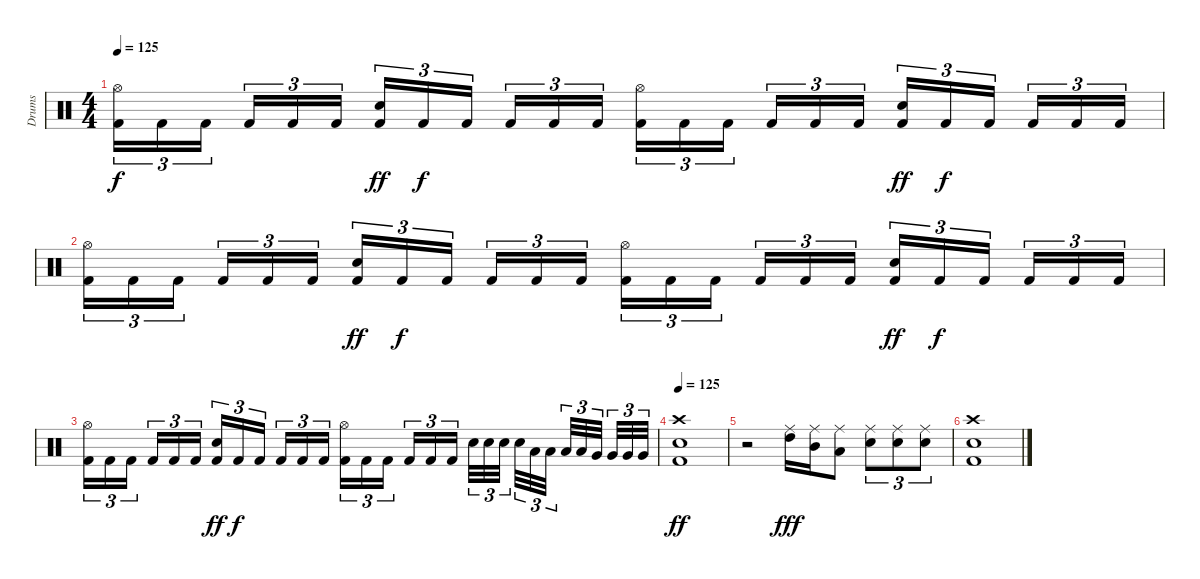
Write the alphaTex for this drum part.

\track ("Drums" "Drums") {instrument percussion}
\staff {score}
\articulation defaults
\ts (4 4)
\tempo 125
\clef neutral
\ks c
("Hi-Hat (open)" "Kick (hit) 2").16{tu (3 2) dy f} "Kick (hit) 2".16{tu (3 2)} "Kick (hit) 2".16{tu (3 2)} "Kick (hit) 2".16{tu (3 2)} "Kick (hit) 2".16{tu (3 2)} "Kick (hit) 2".16{tu (3 2)} ("Electric Snare (hit)" "Kick (hit) 2").16{tu (3 2) dy ff} "Kick (hit) 2".16{tu (3 2) dy f} "Kick (hit) 2".16{tu (3 2)} "Kick (hit) 2".16{tu (3 2)} "Kick (hit) 2".16{tu (3 2)} "Kick (hit) 2".16{tu (3 2)} ("Hi-Hat (open)" "Kick (hit) 2").16{tu (3 2)} "Kick (hit) 2".16{tu (3 2)} "Kick (hit) 2".16{tu (3 2)} "Kick (hit) 2".16{tu (3 2)} "Kick (hit) 2".16{tu (3 2)} "Kick (hit) 2".16{tu (3 2)} ("Electric Snare (hit)" "Kick (hit) 2").16{tu (3 2) dy ff} "Kick (hit) 2".16{tu (3 2) dy f} "Kick (hit) 2".16{tu (3 2)} "Kick (hit) 2".16{tu (3 2)} "Kick (hit) 2".16{tu (3 2)} "Kick (hit) 2".16{tu (3 2)} |
("Hi-Hat (open)" "Kick (hit) 2").16{tu (3 2)} "Kick (hit) 2".16{tu (3 2)} "Kick (hit) 2".16{tu (3 2)} "Kick (hit) 2".16{tu (3 2)} "Kick (hit) 2".16{tu (3 2)} "Kick (hit) 2".16{tu (3 2)} ("Electric Snare (hit)" "Kick (hit) 2").16{tu (3 2) dy ff} "Kick (hit) 2".16{tu (3 2) dy f} "Kick (hit) 2".16{tu (3 2)} "Kick (hit) 2".16{tu (3 2)} "Kick (hit) 2".16{tu (3 2)} "Kick (hit) 2".16{tu (3 2)} ("Hi-Hat (open)" "Kick (hit) 2").16{tu (3 2)} "Kick (hit) 2".16{tu (3 2)} "Kick (hit) 2".16{tu (3 2)} "Kick (hit) 2".16{tu (3 2)} "Kick (hit) 2".16{tu (3 2)} "Kick (hit) 2".16{tu (3 2)} ("Electric Snare (hit)" "Kick (hit) 2").16{tu (3 2) dy ff} "Kick (hit) 2".16{tu (3 2) dy f} "Kick (hit) 2".16{tu (3 2)} "Kick (hit) 2".16{tu (3 2)} "Kick (hit) 2".16{tu (3 2)} "Kick (hit) 2".16{tu (3 2)} |
("Hi-Hat (open)" "Kick (hit) 2").16{tu (3 2)} "Kick (hit) 2".16{tu (3 2)} "Kick (hit) 2".16{tu (3 2)} "Kick (hit) 2".16{tu (3 2)} "Kick (hit) 2".16{tu (3 2)} "Kick (hit) 2".16{tu (3 2)} ("Electric Snare (hit)" "Kick (hit) 2").16{tu (3 2) dy ff} "Kick (hit) 2".16{tu (3 2) dy f} "Kick (hit) 2".16{tu (3 2)} "Kick (hit) 2".16{tu (3 2)} "Kick (hit) 2".16{tu (3 2)} "Kick (hit) 2".16{tu (3 2)} ("Hi-Hat (open)" "Kick (hit) 2").16{tu (3 2)} "Kick (hit) 2".16{tu (3 2)} "Kick (hit) 2".16{tu (3 2)} "Kick (hit) 2".16{tu (3 2)} "Kick (hit) 2".16{tu (3 2)} "Kick (hit) 2".16{tu (3 2)} "Electric Snare (hit)".32{tu (3 2)} "Electric Snare (hit)".32{tu (3 2)} "Electric Snare (hit)".32{tu (3 2)} "Electric Snare (hit)".32{tu (3 2)} "Low Tom (hit)".32{tu (3 2)} "Low Tom (hit)".32{tu (3 2)} "Low Tom (hit)".32{tu (3 2)} "Low Tom (hit)".32{tu (3 2)} "Very Low Tom (hit)".32{tu (3 2)} "Very Low Tom (hit)".32{tu (3 2)} "Very Low Tom (hit)".32{tu (3 2)} "Very Low Tom (hit)".32{tu (3 2)} |
\tempo 125
("Crash high (hit)" "Electric Snare (hit)" "Kick (hit) 2").1{dy ff} |
r.2 ("Ride (middle)" "High Tom (hit)").16{dy fff} ("Ride (middle)" "Mid Tom (hit)").16 ("Ride (middle)" "Low Tom (hit)").8 ("Ride (middle)" "Electric Snare (hit)").8{tu (3 2)} ("Ride (middle)" "Electric Snare (hit)").8{tu (3 2)} ("Ride (middle)" "Electric Snare (hit)").8{tu (3 2)} |
("Crash high (hit)" "Electric Snare (hit)" "Kick (hit) 2").1{volume 16}
